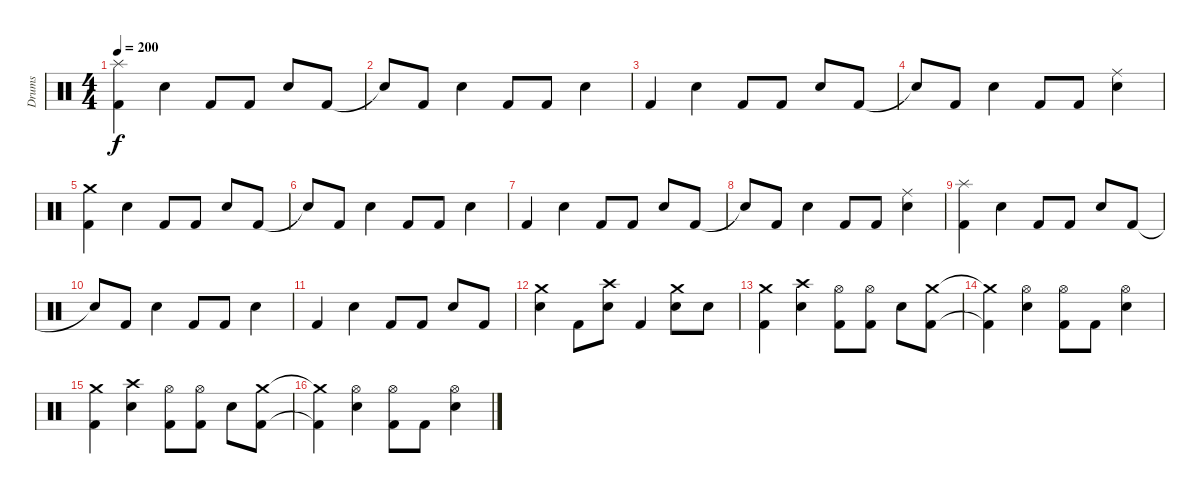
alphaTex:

\track ("Drums" "Drums") {instrument percussion}
\staff {score}
\articulation defaults
\ts (4 4)
\tempo 200
\clef neutral
\ks c
("Kick (hit) 2" "Splash (hit)").4{dy f} "Electric Snare (hit)".4 "Kick (hit) 2".8 "Kick (hit) 2".8 "Electric Snare (hit)".8 "Kick (hit) 2".8 |
"Snare (hit)"{t}.8 "Kick (hit) 2".8 "Electric Snare (hit)".4 "Kick (hit) 2".8 "Kick (hit) 2".8 "Electric Snare (hit)".4 |
"Kick (hit) 2".4 "Electric Snare (hit)".4 "Kick (hit) 2".8 "Kick (hit) 2".8 "Electric Snare (hit)".8 "Kick (hit) 2".8 |
"Snare (hit)"{t}.8 "Kick (hit) 2".8 "Electric Snare (hit)".4 "Kick (hit) 2".8 "Kick (hit) 2".8 ("Electric Snare (hit)" "Ride (middle)").4 |
("Kick (hit) 2" "Crash medium (hit)").4 "Electric Snare (hit)".4 "Kick (hit) 2".8 "Kick (hit) 2".8 "Electric Snare (hit)".8 "Kick (hit) 2".8 |
"Snare (hit)"{t}.8 "Kick (hit) 2".8 "Electric Snare (hit)".4 "Kick (hit) 2".8 "Kick (hit) 2".8 "Electric Snare (hit)".4 |
"Kick (hit) 2".4 "Electric Snare (hit)".4 "Kick (hit) 2".8 "Kick (hit) 2".8 "Electric Snare (hit)".8 "Kick (hit) 2".8 |
"Snare (hit)"{t}.8 "Kick (hit) 2".8 "Electric Snare (hit)".4 "Kick (hit) 2".8 "Kick (hit) 2".8 ("Electric Snare (hit)" "Ride (middle)").4 |
("Kick (hit) 2" "Splash (hit)").4 "Electric Snare (hit)".4 "Kick (hit) 2".8 "Kick (hit) 2".8 "Electric Snare (hit)".8 "Kick (hit) 2".8 |
"Snare (hit)"{t}.8 "Kick (hit) 2".8 "Electric Snare (hit)".4 "Kick (hit) 2".8 "Kick (hit) 2".8 "Electric Snare (hit)".4 |
"Kick (hit) 2".4 "Electric Snare (hit)".4 "Kick (hit) 2".8 "Kick (hit) 2".8 "Electric Snare (hit)".8 "Kick (hit) 2".8 |
("Electric Snare (hit)" "Crash medium (hit)").4 "Kick (hit) 2".8 ("Electric Snare (hit)" "Crash high (hit)").8 "Kick (hit) 2".4 ("Electric Snare (hit)" "Crash medium (hit)").8 "Electric Snare (hit)".8 |
("Crash medium (hit)" "Kick (hit) 2").4 ("Crash high (hit)" "Electric Snare (hit)").4 ("Kick (hit) 2" "Hi-Hat (open)").8 ("Kick (hit) 2" "Hi-Hat (open)").8 "Electric Snare (hit)".8 ("Crash medium (hit)" "Kick (hit) 2").8 |
("Crash medium (hit)"{t} "Kick (hit) 2"{t}).4 ("Hi-Hat (open)" "Electric Snare (hit)").4 ("Kick (hit) 2" "Hi-Hat (open)").8 "Kick (hit) 2".8 ("Electric Snare (hit)" "Hi-Hat (open)").4 |
("Crash medium (hit)" "Kick (hit) 2").4 ("Crash high (hit)" "Electric Snare (hit)").4 ("Kick (hit) 2" "Hi-Hat (open)").8 ("Kick (hit) 2" "Hi-Hat (open)").8 "Electric Snare (hit)".8 ("Crash medium (hit)" "Kick (hit) 2").8 |
("Crash medium (hit)"{t} "Kick (hit) 2"{t}).4 ("Hi-Hat (open)" "Electric Snare (hit)").4 ("Kick (hit) 2" "Hi-Hat (open)").8 "Kick (hit) 2".8 ("Electric Snare (hit)" "Hi-Hat (open)").4
